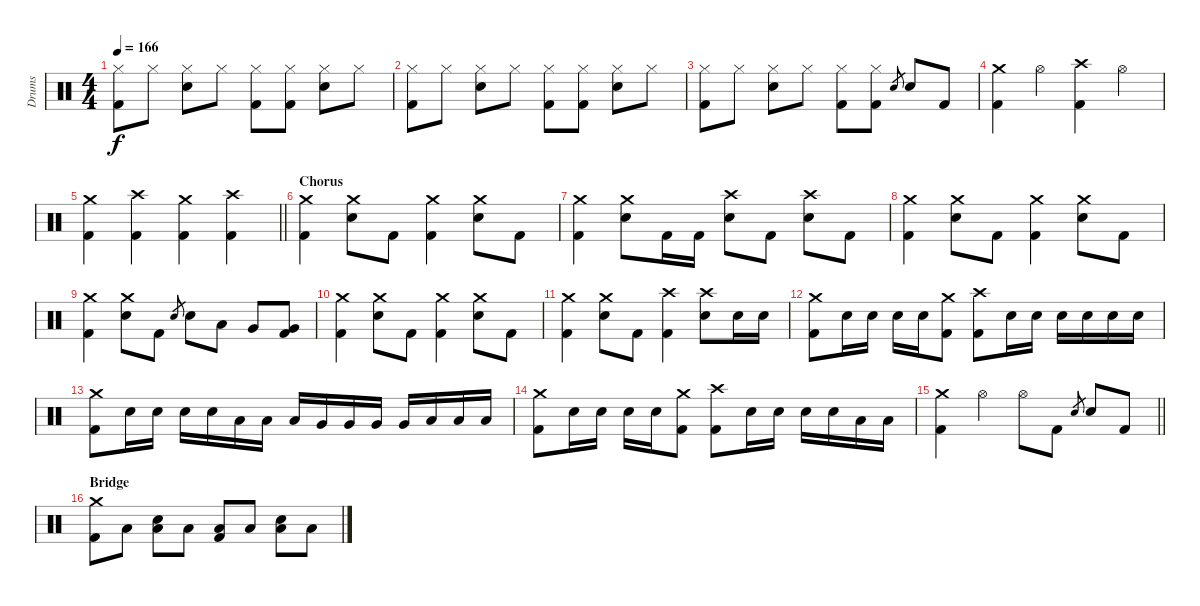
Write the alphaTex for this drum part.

\track ("Drums" "Drums") {instrument percussion}
\staff {score}
\articulation defaults
\ts (4 4)
\tempo 166
\clef neutral
\ks c
("Hi-Hat (closed)" "Kick (hit) 2").8{dy f} "Hi-Hat (closed)".8 ("Hi-Hat (closed)" "Electric Snare (hit)").8 "Hi-Hat (closed)".8 ("Hi-Hat (closed)" "Kick (hit) 2").8 ("Hi-Hat (closed)" "Kick (hit) 2").8 ("Hi-Hat (closed)" "Electric Snare (hit)").8 "Hi-Hat (closed)".8 |
("Hi-Hat (closed)" "Kick (hit) 2").8 "Hi-Hat (closed)".8 ("Hi-Hat (closed)" "Electric Snare (hit)").8 "Hi-Hat (closed)".8 ("Hi-Hat (closed)" "Kick (hit) 2").8 ("Hi-Hat (closed)" "Kick (hit) 2").8 ("Hi-Hat (closed)" "Electric Snare (hit)").8 "Hi-Hat (closed)".8 |
("Hi-Hat (closed)" "Kick (hit) 2").8 "Hi-Hat (closed)".8 ("Hi-Hat (closed)" "Electric Snare (hit)").8 "Hi-Hat (closed)".8 ("Hi-Hat (closed)" "Kick (hit) 2").8 ("Hi-Hat (closed)" "Kick (hit) 2").8 "Electric Snare (hit)".8{gr} "Electric Snare (hit)".8 "Kick (hit) 2".8 |
("Crash medium (hit)" "Kick (hit) 2").4 "Hi-Hat (open)".4 ("Crash high (hit)" "Kick (hit) 2").4 "Hi-Hat (open)".4 |
\barLineRight lightlight
("Crash medium (hit)" "Kick (hit) 2").4 ("Crash high (hit)" "Kick (hit) 2").4 ("Crash medium (hit)" "Kick (hit) 2").4 ("Crash high (hit)" "Kick (hit) 2").4 |
\section ("" "Chorus")
("Crash medium (hit)" "Kick (hit) 2").4 ("Crash medium (hit)" "Electric Snare (hit)").8 "Kick (hit) 2".8 ("Crash medium (hit)" "Kick (hit) 2").4 ("Crash medium (hit)" "Electric Snare (hit)").8 "Kick (hit) 2".8 |
("Crash medium (hit)" "Kick (hit) 2").4 ("Crash medium (hit)" "Electric Snare (hit)").8 "Kick (hit) 2".16 "Kick (hit) 2".16 ("Crash high (hit)" "Electric Snare (hit)").8 "Kick (hit) 2".8 ("Crash high (hit)" "Electric Snare (hit)").8 "Kick (hit) 2".8 |
("Crash medium (hit)" "Kick (hit) 2").4 ("Crash medium (hit)" "Electric Snare (hit)").8 "Kick (hit) 2".8 ("Crash medium (hit)" "Kick (hit) 2").4 ("Crash medium (hit)" "Electric Snare (hit)").8 "Kick (hit) 2".8 |
("Crash medium (hit)" "Kick (hit) 2").4 ("Crash medium (hit)" "Electric Snare (hit)").8 "Kick (hit) 2".8 "Electric Snare (hit)".8{gr} "Electric Snare (hit)".8 "Low Tom (hit)".8 "Very Low Tom (hit)".8 ("Very Low Tom (hit)" "Kick (hit) 2").8 |
("Crash medium (hit)" "Kick (hit) 2").4 ("Crash medium (hit)" "Electric Snare (hit)").8 "Kick (hit) 2".8 ("Crash medium (hit)" "Kick (hit) 2").4 ("Crash medium (hit)" "Electric Snare (hit)").8 "Kick (hit) 2".8 |
("Crash medium (hit)" "Kick (hit) 2").4 ("Crash medium (hit)" "Electric Snare (hit)").8 "Kick (hit) 2".8 ("Crash high (hit)" "Kick (hit) 2").4 ("Crash high (hit)" "Electric Snare (hit)").8 "Electric Snare (hit)".16 "Electric Snare (hit)".16 |
("Crash medium (hit)" "Kick (hit) 2").8 "Electric Snare (hit)".16 "Electric Snare (hit)".16 "Electric Snare (hit)".16 "Electric Snare (hit)".16 ("Crash medium (hit)" "Kick (hit) 2").8 ("Crash high (hit)" "Kick (hit) 2").8 "Electric Snare (hit)".16 "Electric Snare (hit)".16 "Electric Snare (hit)".16 "Electric Snare (hit)".16 "Electric Snare (hit)".16 "Electric Snare (hit)".16 |
("Crash medium (hit)" "Kick (hit) 2").8 "Electric Snare (hit)".16 "Electric Snare (hit)".16 "Electric Snare (hit)".16 "Electric Snare (hit)".16 "Low Tom (hit)".16 "Low Tom (hit)".16 "Low Tom (hit)".16 "Very Low Tom (hit)".16 "Very Low Tom (hit)".16 "Very Low Tom (hit)".16 "Very Low Tom (hit)".16 "Low Floor Tom (hit)".16 "Low Floor Tom (hit)".16 "Low Floor Tom (hit)".16 |
("Crash medium (hit)" "Kick (hit) 2").8 "Electric Snare (hit)".16 "Electric Snare (hit)".16 "Electric Snare (hit)".16 "Electric Snare (hit)".16 ("Crash medium (hit)" "Kick (hit) 2").8 ("Crash high (hit)" "Kick (hit) 2").8 "Electric Snare (hit)".16 "Electric Snare (hit)".16 "Electric Snare (hit)".16 "Electric Snare (hit)".16 "Low Tom (hit)".16 "Low Tom (hit)".16 |
\barLineRight lightlight
("Crash medium (hit)" "Kick (hit) 2").4 "Hi-Hat (open)".4 "Hi-Hat (open)".8 "Kick (hit) 2".8 "Electric Snare (hit)".8{gr} "Electric Snare (hit)".8 "Kick (hit) 2".8 |
\section ("" "Bridge")
("Crash medium (hit)" "Kick (hit) 2").8 "Low Floor Tom (hit)".8 ("Low Floor Tom (hit)" "Electric Snare (hit)").8 "Low Floor Tom (hit)".8 ("Low Floor Tom (hit)" "Kick (hit) 2").8 "Low Floor Tom (hit)".8 ("Low Floor Tom (hit)" "Electric Snare (hit)").8 "Low Floor Tom (hit)".8
